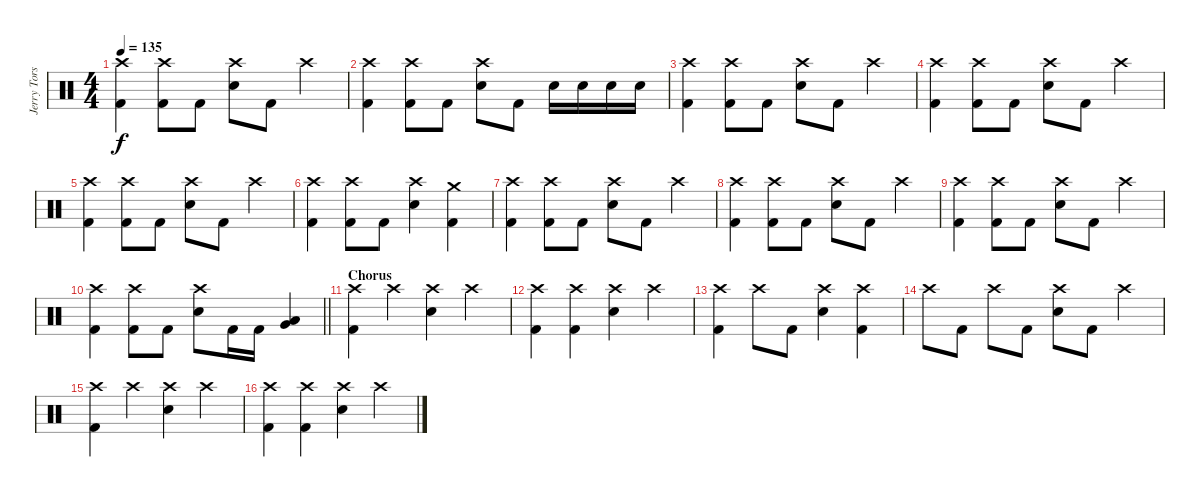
\track ("Jerry Torstensson" "Jerry Tors") {instrument percussion}
\staff {score}
\articulation defaults
\ts (4 4)
\tempo 135
\clef neutral
\ks c
("Crash high (hit)" "Kick (hit) 2").4{dy f} ("Crash high (hit)" "Kick (hit) 2").8 "Kick (hit) 2".8 ("Crash high (hit)" "Snare (hit) 2").8 "Kick (hit) 2".8 "Crash high (hit)".4 |
("Crash high (hit)" "Kick (hit) 2").4 ("Crash high (hit)" "Kick (hit) 2").8 "Kick (hit) 2".8 ("Crash high (hit)" "Snare (hit) 2").8 "Kick (hit) 2".8 "Snare (hit) 2".16 "Snare (hit) 2".16 "Snare (hit) 2".16 "Snare (hit) 2".16 |
("Crash high (hit)" "Kick (hit) 2").4 ("Crash high (hit)" "Kick (hit) 2").8 "Kick (hit) 2".8 ("Crash high (hit)" "Snare (hit) 2").8 "Kick (hit) 2".8 "Crash high (hit)".4 |
("Crash high (hit)" "Kick (hit) 2").4 ("Crash high (hit)" "Kick (hit) 2").8 "Kick (hit) 2".8 ("Crash high (hit)" "Snare (hit) 2").8 "Kick (hit) 2".8 "Crash high (hit)".4 |
("Crash high (hit)" "Kick (hit) 2").4 ("Crash high (hit)" "Kick (hit) 2").8 "Kick (hit) 2".8 ("Crash high (hit)" "Snare (hit) 2").8 "Kick (hit) 2".8 "Crash high (hit)".4 |
("Crash high (hit)" "Kick (hit) 2").4 ("Crash high (hit)" "Kick (hit) 2").8 "Kick (hit) 2".8 ("Crash high (hit)" "Snare (hit) 2").4 ("Crash medium (hit)" "Kick (hit) 2").4 |
("Crash high (hit)" "Kick (hit) 2").4 ("Crash high (hit)" "Kick (hit) 2").8 "Kick (hit) 2".8 ("Crash high (hit)" "Snare (hit) 2").8 "Kick (hit) 2".8 "Crash high (hit)".4 |
("Crash high (hit)" "Kick (hit) 2").4 ("Crash high (hit)" "Kick (hit) 2").8 "Kick (hit) 2".8 ("Crash high (hit)" "Snare (hit) 2").8 "Kick (hit) 2".8 "Crash high (hit)".4 |
("Crash high (hit)" "Kick (hit) 2").4 ("Crash high (hit)" "Kick (hit) 2").8 "Kick (hit) 2".8 ("Crash high (hit)" "Snare (hit) 2").8 "Kick (hit) 2".8 "Crash high (hit)".4 |
\barLineRight lightlight
("Crash high (hit)" "Kick (hit) 2").4 ("Crash high (hit)" "Kick (hit) 2").8 "Kick (hit) 2".8 ("Crash high (hit)" "Snare (hit) 2").8 "Kick (hit) 2".16 "Kick (hit) 2".16 ("Very Low Tom (hit)" "Low Tom (hit)").4 |
\section ("" "Chorus")
("Crash high (hit)" "Kick (hit) 2").4 "Crash high (hit)".4 ("Crash high (hit)" "Snare (hit) 2").4 "Crash high (hit)".4 |
("Crash high (hit)" "Kick (hit) 2").4 ("Crash high (hit)" "Kick (hit) 2").4 ("Crash high (hit)" "Snare (hit) 2").4 "Crash high (hit)".4 |
("Crash high (hit)" "Kick (hit) 2").4 "Crash high (hit)".8 "Kick (hit) 2".8 ("Crash high (hit)" "Snare (hit) 2").4 ("Crash high (hit)" "Kick (hit) 2").4 |
"Crash high (hit)".8 "Kick (hit) 2".8 "Crash high (hit)".8 "Kick (hit) 2".8 ("Crash high (hit)" "Snare (hit) 2").8 "Kick (hit) 2".8 "Crash high (hit)".4 |
("Crash high (hit)" "Kick (hit) 2").4 "Crash high (hit)".4 ("Crash high (hit)" "Snare (hit) 2").4 "Crash high (hit)".4 |
("Crash high (hit)" "Kick (hit) 2").4 ("Crash high (hit)" "Kick (hit) 2").4 ("Crash high (hit)" "Snare (hit) 2").4 "Crash high (hit)".4
